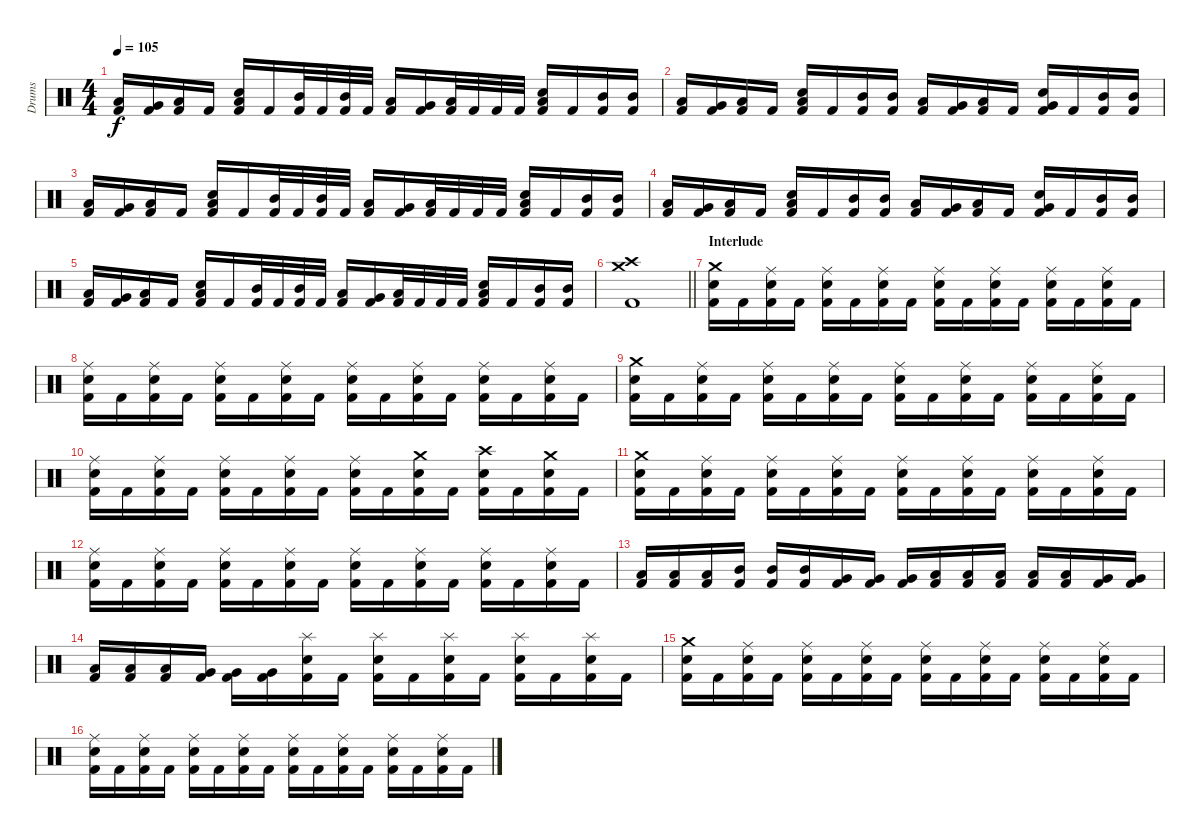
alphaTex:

\track ("Drums" "Drums") {instrument percussion}
\staff {score}
\articulation defaults
\ts (4 4)
\tempo 105
\clef neutral
\ks c
("Kick (hit) 2" "Low Tom (hit)").16{dy f} ("Kick (hit) 2" "Very Low Tom (hit)").16 ("Kick (hit) 2" "Low Floor Tom (hit)").16 "Kick (hit) 2".16 ("Kick (hit) 2" "Snare (hit) 2" "Low Tom (hit)").16 "Kick (hit) 2".16 ("Kick (hit) 2" "Mid Tom (hit)").32 "Kick (hit) 2".32 ("Kick (hit) 2" "Mid Tom (hit)").32 "Kick (hit) 2".32 ("Kick (hit) 2" "Low Tom (hit)").16 ("Kick (hit) 2" "Very Low Tom (hit)").16 ("Kick (hit) 2" "Low Floor Tom (hit)").32 "Kick (hit) 2".32 "Kick (hit) 2".32 "Kick (hit) 2".32 ("Kick (hit) 2" "Snare (hit) 2" "Low Tom (hit)").16 "Kick (hit) 2".16 ("Kick (hit) 2" "Mid Tom (hit)").16 ("Kick (hit) 2" "Mid Tom (hit)").16 |
("Kick (hit) 2" "Low Tom (hit)").16 ("Kick (hit) 2" "Very Low Tom (hit)").16 ("Kick (hit) 2" "Low Floor Tom (hit)").16 "Kick (hit) 2".16 ("Kick (hit) 2" "Snare (hit) 2" "Low Tom (hit)").16 "Kick (hit) 2".16 ("Kick (hit) 2" "Mid Tom (hit)").16 ("Kick (hit) 2" "Mid Tom (hit)").16 ("Kick (hit) 2" "Low Tom (hit)").16 ("Kick (hit) 2" "Very Low Tom (hit)").16 ("Kick (hit) 2" "Low Floor Tom (hit)").16 "Kick (hit) 2".16 ("Kick (hit) 2" "Snare (hit) 2" "Very Low Tom (hit)").16 "Kick (hit) 2".16 ("Kick (hit) 2" "Mid Tom (hit)").16 ("Kick (hit) 2" "Mid Tom (hit)").16 |
("Kick (hit) 2" "Low Tom (hit)").16 ("Kick (hit) 2" "Very Low Tom (hit)").16 ("Kick (hit) 2" "Low Floor Tom (hit)").16 "Kick (hit) 2".16 ("Kick (hit) 2" "Snare (hit) 2" "Low Tom (hit)").16 "Kick (hit) 2".16 ("Kick (hit) 2" "Mid Tom (hit)").32 "Kick (hit) 2".32 ("Kick (hit) 2" "Mid Tom (hit)").32 "Kick (hit) 2".32 ("Kick (hit) 2" "Low Tom (hit)").16 ("Kick (hit) 2" "Very Low Tom (hit)").16 ("Kick (hit) 2" "Low Floor Tom (hit)").32 "Kick (hit) 2".32 "Kick (hit) 2".32 "Kick (hit) 2".32 ("Kick (hit) 2" "Snare (hit) 2" "Low Tom (hit)").16 "Kick (hit) 2".16 ("Kick (hit) 2" "Mid Tom (hit)").16 ("Kick (hit) 2" "Mid Tom (hit)").16 |
("Kick (hit) 2" "Low Tom (hit)").16 ("Kick (hit) 2" "Very Low Tom (hit)").16 ("Kick (hit) 2" "Low Floor Tom (hit)").16 "Kick (hit) 2".16 ("Kick (hit) 2" "Snare (hit) 2" "Low Tom (hit)").16 "Kick (hit) 2".16 ("Kick (hit) 2" "Mid Tom (hit)").16 ("Kick (hit) 2" "Mid Tom (hit)").16 ("Kick (hit) 2" "Low Tom (hit)").16 ("Kick (hit) 2" "Very Low Tom (hit)").16 ("Kick (hit) 2" "Low Floor Tom (hit)").16 "Kick (hit) 2".16 ("Kick (hit) 2" "Snare (hit) 2" "Very Low Tom (hit)").16 "Kick (hit) 2".16 ("Kick (hit) 2" "Mid Tom (hit)").16 ("Kick (hit) 2" "Mid Tom (hit)").16 |
("Kick (hit) 2" "Low Tom (hit)").16 ("Kick (hit) 2" "Very Low Tom (hit)").16 ("Kick (hit) 2" "Low Floor Tom (hit)").16 "Kick (hit) 2".16 ("Kick (hit) 2" "Snare (hit) 2" "Low Tom (hit)").16 "Kick (hit) 2".16 ("Kick (hit) 2" "Mid Tom (hit)").32 "Kick (hit) 2".32 ("Kick (hit) 2" "Mid Tom (hit)").32 "Kick (hit) 2".32 ("Kick (hit) 2" "Low Tom (hit)").16 ("Kick (hit) 2" "Very Low Tom (hit)").16 ("Kick (hit) 2" "Low Floor Tom (hit)").32 "Kick (hit) 2".32 "Kick (hit) 2".32 "Kick (hit) 2".32 ("Kick (hit) 2" "Snare (hit) 2" "Low Tom (hit)").16 "Kick (hit) 2".16 ("Kick (hit) 2" "Mid Tom (hit)").16 ("Kick (hit) 2" "Mid Tom (hit)").16 |
\barLineRight lightlight
("Kick (hit) 2" "Crash high (hit)" "Crash medium (hit)").1 |
\section ("" "Interlude")
("Kick (hit) 2" "Snare (hit) 2" "Crash medium (hit)").16 "Kick (hit) 2".16 ("Kick (hit) 2" "Snare (hit) 2" "Ride (middle)").16 "Kick (hit) 2".16 ("Kick (hit) 2" "Snare (hit) 2" "Ride (middle)").16 "Kick (hit) 2".16 ("Kick (hit) 2" "Snare (hit) 2" "Ride (middle)").16 "Kick (hit) 2".16 ("Kick (hit) 2" "Snare (hit) 2" "Ride (middle)").16 "Kick (hit) 2".16 ("Kick (hit) 2" "Snare (hit) 2" "Ride (middle)").16 "Kick (hit) 2".16 ("Kick (hit) 2" "Snare (hit) 2" "Ride (middle)").16 "Kick (hit) 2".16 ("Kick (hit) 2" "Snare (hit) 2" "Ride (middle)").16 "Kick (hit) 2".16 |
("Kick (hit) 2" "Snare (hit) 2" "Ride (middle)").16 "Kick (hit) 2".16 ("Kick (hit) 2" "Snare (hit) 2" "Ride (middle)").16 "Kick (hit) 2".16 ("Kick (hit) 2" "Snare (hit) 2" "Ride (middle)").16 "Kick (hit) 2".16 ("Kick (hit) 2" "Snare (hit) 2" "Ride (middle)").16 "Kick (hit) 2".16 ("Kick (hit) 2" "Snare (hit) 2" "Ride (middle)").16 "Kick (hit) 2".16 ("Kick (hit) 2" "Snare (hit) 2" "Ride (middle)").16 "Kick (hit) 2".16 ("Kick (hit) 2" "Snare (hit) 2" "Ride (middle)").16 "Kick (hit) 2".16 ("Kick (hit) 2" "Snare (hit) 2" "Ride (middle)").16 "Kick (hit) 2".16 |
("Kick (hit) 2" "Snare (hit) 2" "Crash medium (hit)").16 "Kick (hit) 2".16 ("Kick (hit) 2" "Snare (hit) 2" "Ride (middle)").16 "Kick (hit) 2".16 ("Kick (hit) 2" "Snare (hit) 2" "Ride (middle)").16 "Kick (hit) 2".16 ("Kick (hit) 2" "Snare (hit) 2" "Ride (middle)").16 "Kick (hit) 2".16 ("Kick (hit) 2" "Snare (hit) 2" "Ride (middle)").16 "Kick (hit) 2".16 ("Kick (hit) 2" "Snare (hit) 2" "Ride (middle)").16 "Kick (hit) 2".16 ("Kick (hit) 2" "Snare (hit) 2" "Ride (middle)").16 "Kick (hit) 2".16 ("Kick (hit) 2" "Snare (hit) 2" "Ride (middle)").16 "Kick (hit) 2".16 |
("Kick (hit) 2" "Snare (hit) 2" "Ride (middle)").16 "Kick (hit) 2".16 ("Kick (hit) 2" "Snare (hit) 2" "Ride (middle)").16 "Kick (hit) 2".16 ("Kick (hit) 2" "Snare (hit) 2" "Ride (middle)").16 "Kick (hit) 2".16 ("Kick (hit) 2" "Snare (hit) 2" "Ride (middle)").16 "Kick (hit) 2".16 ("Kick (hit) 2" "Snare (hit) 2" "Ride (middle)").16 "Kick (hit) 2".16 ("Kick (hit) 2" "Snare (hit) 2" "Crash medium (hit)").16 "Kick (hit) 2".16 ("Kick (hit) 2" "Snare (hit) 2" "Crash high (hit)").16 "Kick (hit) 2".16 ("Kick (hit) 2" "Snare (hit) 2" "Crash medium (hit)").16 "Kick (hit) 2".16 |
("Kick (hit) 2" "Snare (hit) 2" "Crash medium (hit)").16 "Kick (hit) 2".16 ("Kick (hit) 2" "Snare (hit) 2" "Ride (middle)").16 "Kick (hit) 2".16 ("Kick (hit) 2" "Snare (hit) 2" "Ride (middle)").16 "Kick (hit) 2".16 ("Kick (hit) 2" "Snare (hit) 2" "Ride (middle)").16 "Kick (hit) 2".16 ("Kick (hit) 2" "Snare (hit) 2" "Ride (middle)").16 "Kick (hit) 2".16 ("Kick (hit) 2" "Snare (hit) 2" "Ride (middle)").16 "Kick (hit) 2".16 ("Kick (hit) 2" "Snare (hit) 2" "Ride (middle)").16 "Kick (hit) 2".16 ("Kick (hit) 2" "Snare (hit) 2" "Ride (middle)").16 "Kick (hit) 2".16 |
("Kick (hit) 2" "Snare (hit) 2" "Ride (middle)").16 "Kick (hit) 2".16 ("Kick (hit) 2" "Snare (hit) 2" "Ride (middle)").16 "Kick (hit) 2".16 ("Kick (hit) 2" "Snare (hit) 2" "Ride (middle)").16 "Kick (hit) 2".16 ("Kick (hit) 2" "Snare (hit) 2" "Ride (middle)").16 "Kick (hit) 2".16 ("Kick (hit) 2" "Snare (hit) 2" "Ride (middle)").16 "Kick (hit) 2".16 ("Kick (hit) 2" "Snare (hit) 2" "Ride (middle)").16 "Kick (hit) 2".16 ("Kick (hit) 2" "Snare (hit) 2" "Ride (middle)").16 "Kick (hit) 2".16 ("Kick (hit) 2" "Snare (hit) 2" "Ride (middle)").16 "Kick (hit) 2".16 |
("Kick (hit) 2" "Low Tom (hit)").16 ("Kick (hit) 2" "Low Tom (hit)").16 ("Kick (hit) 2" "Low Tom (hit)").16 ("Kick (hit) 2" "Mid Tom (hit)").16 ("Kick (hit) 2" "Mid Tom (hit)").16 ("Kick (hit) 2" "Mid Tom (hit)").16 ("Kick (hit) 2" "Very Low Tom (hit)").16 ("Kick (hit) 2" "Very Low Tom (hit)").16 ("Kick (hit) 2" "Very Low Tom (hit)").16 ("Kick (hit) 2" "Low Tom (hit)").16 ("Kick (hit) 2" "Low Tom (hit)").16 ("Kick (hit) 2" "Low Tom (hit)").16 ("Kick (hit) 2" "Low Floor Tom (hit)").16 ("Kick (hit) 2" "Low Floor Tom (hit)").16 ("Kick (hit) 2" "Very Low Tom (hit)").16 ("Kick (hit) 2" "Very Low Tom (hit)").16 |
("Kick (hit) 2" "Low Tom (hit)").16 ("Kick (hit) 2" "Low Tom (hit)").16 ("Kick (hit) 2" "Low Tom (hit)").16 ("Kick (hit) 2" "Very Low Tom (hit)").16 ("Kick (hit) 2" "Very Low Tom (hit)").16 ("Kick (hit) 2" "Very Low Tom (hit)").16 ("Kick (hit) 2" "Snare (hit) 2" "Splash (hit)").16 "Kick (hit) 2".16 ("Kick (hit) 2" "Snare (hit) 2" "Splash (hit)").16 "Kick (hit) 2".16 ("Kick (hit) 2" "Snare (hit) 2" "Splash (hit)").16 "Kick (hit) 2".16 ("Kick (hit) 2" "Snare (hit) 2" "Splash (hit)").16 "Kick (hit) 2".16 ("Kick (hit) 2" "Snare (hit) 2" "Splash (hit)").16 "Kick (hit) 2".16 |
("Kick (hit) 2" "Snare (hit) 2" "Crash medium (hit)").16 "Kick (hit) 2".16 ("Kick (hit) 2" "Snare (hit) 2" "Ride (middle)").16 "Kick (hit) 2".16 ("Kick (hit) 2" "Snare (hit) 2" "Ride (middle)").16 "Kick (hit) 2".16 ("Kick (hit) 2" "Snare (hit) 2" "Ride (middle)").16 "Kick (hit) 2".16 ("Kick (hit) 2" "Snare (hit) 2" "Ride (middle)").16 "Kick (hit) 2".16 ("Kick (hit) 2" "Snare (hit) 2" "Ride (middle)").16 "Kick (hit) 2".16 ("Kick (hit) 2" "Snare (hit) 2" "Ride (middle)").16 "Kick (hit) 2".16 ("Kick (hit) 2" "Snare (hit) 2" "Ride (middle)").16 "Kick (hit) 2".16 |
("Kick (hit) 2" "Snare (hit) 2" "Ride (middle)").16 "Kick (hit) 2".16 ("Kick (hit) 2" "Snare (hit) 2" "Ride (middle)").16 "Kick (hit) 2".16 ("Kick (hit) 2" "Snare (hit) 2" "Ride (middle)").16 "Kick (hit) 2".16 ("Kick (hit) 2" "Snare (hit) 2" "Ride (middle)").16 "Kick (hit) 2".16 ("Kick (hit) 2" "Snare (hit) 2" "Ride (middle)").16 "Kick (hit) 2".16 ("Kick (hit) 2" "Snare (hit) 2" "Ride (middle)").16 "Kick (hit) 2".16 ("Kick (hit) 2" "Snare (hit) 2" "Ride (middle)").16 "Kick (hit) 2".16 ("Kick (hit) 2" "Snare (hit) 2" "Ride (middle)").16 "Kick (hit) 2".16
